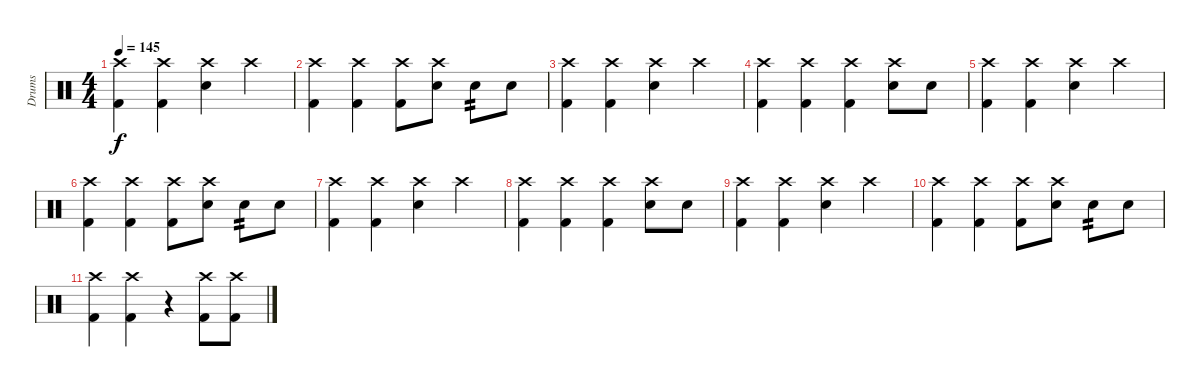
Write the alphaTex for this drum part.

\track ("Drums" "Drums") {instrument percussion}
\staff {score}
\articulation defaults
\ts (4 4)
\tempo 145
\clef neutral
\ks c
("Crash high (hit)" "Kick (hit) 2").4{dy f} ("Crash high (hit)" "Kick (hit) 2").4 ("Crash high (hit)" "Electric Snare (hit)").4 "Crash high (hit)".4 |
("Crash high (hit)" "Kick (hit) 2").4 ("Crash high (hit)" "Kick (hit) 2").4 ("Crash high (hit)" "Kick (hit) 2").8 ("Crash high (hit)" "Electric Snare (hit)").8 "Electric Snare (hit)".8{tp 2} "Electric Snare (hit)".8 |
("Crash high (hit)" "Kick (hit) 2").4 ("Crash high (hit)" "Kick (hit) 2").4 ("Crash high (hit)" "Electric Snare (hit)").4 "Crash high (hit)".4 |
("Crash high (hit)" "Kick (hit) 2").4 ("Crash high (hit)" "Kick (hit) 2").4 ("Crash high (hit)" "Kick (hit) 2").4 ("Crash high (hit)" "Electric Snare (hit)").8 "Electric Snare (hit)".8 |
("Crash high (hit)" "Kick (hit) 2").4 ("Crash high (hit)" "Kick (hit) 2").4 ("Crash high (hit)" "Electric Snare (hit)").4 "Crash high (hit)".4 |
("Crash high (hit)" "Kick (hit) 2").4 ("Crash high (hit)" "Kick (hit) 2").4 ("Crash high (hit)" "Kick (hit) 2").8 ("Crash high (hit)" "Electric Snare (hit)").8 "Electric Snare (hit)".8{tp 2} "Electric Snare (hit)".8 |
("Crash high (hit)" "Kick (hit) 2").4 ("Crash high (hit)" "Kick (hit) 2").4 ("Crash high (hit)" "Electric Snare (hit)").4 "Crash high (hit)".4 |
("Crash high (hit)" "Kick (hit) 2").4 ("Crash high (hit)" "Kick (hit) 2").4 ("Crash high (hit)" "Kick (hit) 2").4 ("Crash high (hit)" "Electric Snare (hit)").8 "Electric Snare (hit)".8 |
("Crash high (hit)" "Kick (hit) 2").4 ("Crash high (hit)" "Kick (hit) 2").4 ("Crash high (hit)" "Electric Snare (hit)").4 "Crash high (hit)".4 |
("Crash high (hit)" "Kick (hit) 2").4 ("Crash high (hit)" "Kick (hit) 2").4 ("Crash high (hit)" "Kick (hit) 2").8 ("Crash high (hit)" "Electric Snare (hit)").8 "Electric Snare (hit)".8{tp 2} "Electric Snare (hit)".8 |
("Crash high (hit)" "Kick (hit) 2").4 ("Crash high (hit)" "Kick (hit) 2").4 r.4 ("Crash high (hit)" "Kick (hit) 2").8 ("Crash high (hit)" "Kick (hit) 2").8
